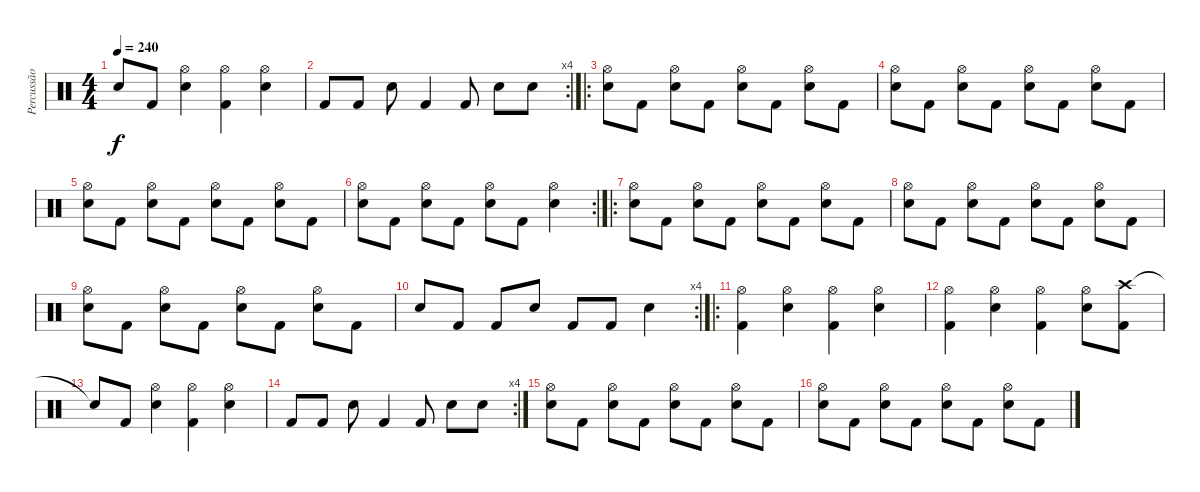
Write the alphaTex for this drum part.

\track ("Percussão" "Percussão") {instrument percussion}
\staff {score}
\articulation defaults
\ts (4 4)
\tempo 240
\clef neutral
\ks c "Snare (hit)"{t}.8{dy f} "Kick (hit) 2".8
("Hi-Hat (open)" "Electric Snare (hit)").4 ("Hi-Hat (open)" "Kick (hit) 2").4 ("Hi-Hat (open)" "Electric Snare (hit)").4 |
\rc 4 "Kick (hit) 2".8 "Kick (hit) 2".8 "Electric Snare (hit)".8 "Kick (hit) 2".4 "Kick (hit) 2".8 "Electric Snare (hit)".8 "Electric Snare (hit)".8
|
\ro
("Hi-Hat (open)" "Electric Snare (hit)").8 "Kick (hit) 2".8 ("Hi-Hat (open)" "Electric Snare (hit)").8 "Kick (hit) 2".8 ("Hi-Hat (open)" "Electric Snare (hit)").8 "Kick (hit) 2".8 ("Hi-Hat (open)" "Electric Snare (hit)").8 "Kick (hit) 2".8 |
("Hi-Hat (open)" "Electric Snare (hit)").8 "Kick (hit) 2".8 ("Hi-Hat (open)" "Electric Snare (hit)").8 "Kick (hit) 2".8 ("Hi-Hat (open)" "Electric Snare (hit)").8 "Kick (hit) 2".8 ("Hi-Hat (open)" "Electric Snare (hit)").8 "Kick (hit) 2".8 |
("Hi-Hat (open)" "Electric Snare (hit)").8 "Kick (hit) 2".8 ("Hi-Hat (open)" "Electric Snare (hit)").8 "Kick (hit) 2".8 ("Hi-Hat (open)" "Electric Snare (hit)").8 "Kick (hit) 2".8 ("Hi-Hat (open)" "Electric Snare (hit)").8 "Kick (hit) 2".8 |
\rc 2
("Hi-Hat (open)" "Electric Snare (hit)").8 "Kick (hit) 2".8 ("Hi-Hat (open)" "Electric Snare (hit)").8 "Kick (hit) 2".8 ("Hi-Hat (open)" "Electric Snare (hit)").8 "Kick (hit) 2".8 ("Hi-Hat (open)" "Electric Snare (hit)").4 |
\ro
("Hi-Hat (open)" "Electric Snare (hit)").8 "Kick (hit) 2".8 ("Hi-Hat (open)" "Electric Snare (hit)").8 "Kick (hit) 2".8 ("Hi-Hat (open)" "Electric Snare (hit)").8 "Kick (hit) 2".8 ("Hi-Hat (open)" "Electric Snare (hit)").8 "Kick (hit) 2".8 |
("Hi-Hat (open)" "Electric Snare (hit)").8 "Kick (hit) 2".8 ("Hi-Hat (open)" "Electric Snare (hit)").8 "Kick (hit) 2".8 ("Hi-Hat (open)" "Electric Snare (hit)").8 "Kick (hit) 2".8 ("Hi-Hat (open)" "Electric Snare (hit)").8 "Kick (hit) 2".8 |
("Hi-Hat (open)" "Electric Snare (hit)").8 "Kick (hit) 2".8 ("Hi-Hat (open)" "Electric Snare (hit)").8 "Kick (hit) 2".8 ("Hi-Hat (open)" "Electric Snare (hit)").8 "Kick (hit) 2".8 ("Hi-Hat (open)" "Electric Snare (hit)").8 "Kick (hit) 2".8 |
\rc 4 "Electric Snare (hit)".8 "Kick (hit) 2".8 "Kick (hit) 2".8 "Electric Snare (hit)".8 "Kick (hit) 2".8 "Kick (hit) 2".8 "Electric Snare (hit)".4
|
\ro
("Hi-Hat (open)" "Kick (hit) 2").4 ("Hi-Hat (open)" "Electric Snare (hit)").4 ("Hi-Hat (open)" "Kick (hit) 2").4 ("Hi-Hat (open)" "Electric Snare (hit)").4 |
("Hi-Hat (open)" "Kick (hit) 2").4 ("Hi-Hat (open)" "Electric Snare (hit)").4 ("Hi-Hat (open)" "Kick (hit) 2").4 ("Hi-Hat (open)" "Electric Snare (hit)").8 ("Crash high (hit)" "Kick (hit) 2").8 |
"Snare (hit)"{t}.8 "Kick (hit) 2".8 ("Hi-Hat (open)" "Electric Snare (hit)").4 ("Hi-Hat (open)" "Kick (hit) 2").4 ("Hi-Hat (open)" "Electric Snare (hit)").4 |
\rc 4 "Kick (hit) 2".8 "Kick (hit) 2".8 "Electric Snare (hit)".8 "Kick (hit) 2".4 "Kick (hit) 2".8 "Electric Snare (hit)".8 "Electric Snare (hit)".8
|
("Hi-Hat (open)" "Electric Snare (hit)").8 "Kick (hit) 2".8 ("Hi-Hat (open)" "Electric Snare (hit)").8 "Kick (hit) 2".8 ("Hi-Hat (open)" "Electric Snare (hit)").8 "Kick (hit) 2".8 ("Hi-Hat (open)" "Electric Snare (hit)").8 "Kick (hit) 2".8 |
("Hi-Hat (open)" "Electric Snare (hit)").8 "Kick (hit) 2".8 ("Hi-Hat (open)" "Electric Snare (hit)").8 "Kick (hit) 2".8 ("Hi-Hat (open)" "Electric Snare (hit)").8 "Kick (hit) 2".8 ("Hi-Hat (open)" "Electric Snare (hit)").8 "Kick (hit) 2".8
